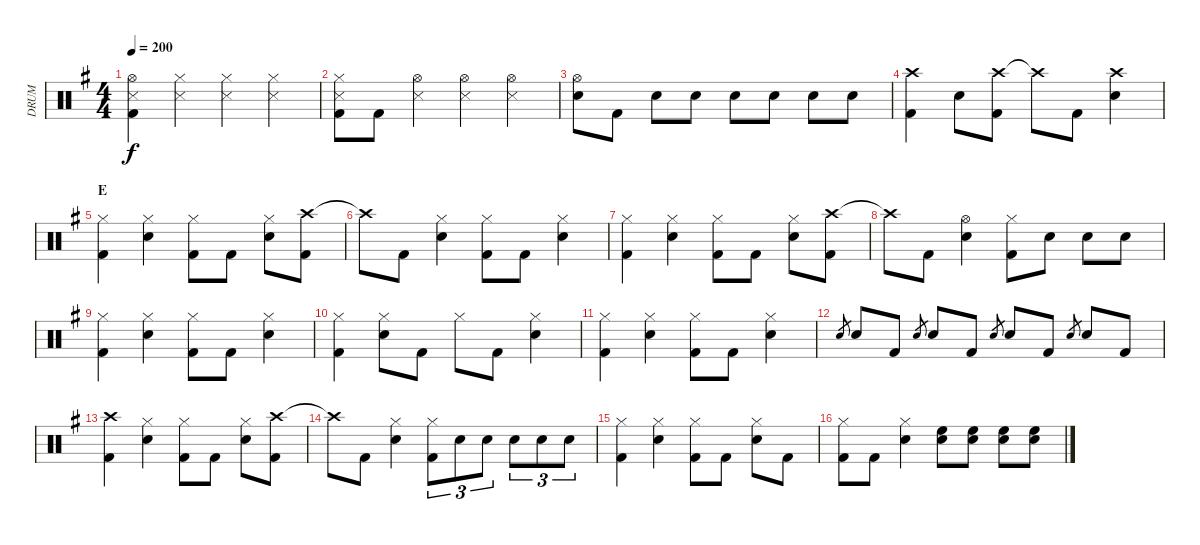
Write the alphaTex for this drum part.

\track ("DRUM" "DRUM") {instrument percussion}
\staff {score}
\articulation defaults
\ts (4 4)
\tempo 200
\clef neutral
\ks eminor
("Hi-Hat (open)" "Snare (side stick) 3" "Kick (hit) 2").4{dy f} ("Hi-Hat (closed)" "Snare (side stick) 3").4 ("Hi-Hat (closed)" "Snare (side stick) 3").4 ("Hi-Hat (closed)" "Snare (side stick) 3").4 |
("Hi-Hat (closed)" "Snare (side stick) 3" "Kick (hit) 2").8 "Kick (hit) 2".8 ("Hi-Hat (open)" "Snare (side stick) 3").4 ("Hi-Hat (open)" "Snare (side stick) 3").4 ("Hi-Hat (open)" "Snare (side stick) 3").4 |
("Hi-Hat (open)" "Snare (hit) 2").8 "Kick (hit) 2".8 "Snare (hit) 2".8 "Snare (hit) 2".8 "Snare (hit) 2".8 "Snare (hit) 2".8 "Snare (hit) 2".8 "Snare (hit) 2".8 |
("Crash high (hit)" "Kick (hit) 2").4 "Snare (hit) 2".8 ("Crash high (hit)" "Kick (hit) 2").8 "Crash high (hit)"{t}.8 "Kick (hit) 2".8 ("Crash high (hit)" "Snare (hit) 2").4 |
\section ("" "E")
("Hi-Hat (closed)" "Kick (hit) 2").4 ("Hi-Hat (closed)" "Snare (hit) 2").4 ("Hi-Hat (closed)" "Kick (hit) 2").8 "Kick (hit) 2".8 ("Hi-Hat (closed)" "Snare (hit) 2").8 ("Crash high (hit)" "Kick (hit) 2").8 |
"Crash high (hit)"{t}.8 "Kick (hit) 2".8 ("Hi-Hat (closed)" "Snare (hit) 2").4 ("Hi-Hat (closed)" "Kick (hit) 2").8 "Kick (hit) 2".8 ("Hi-Hat (closed)" "Snare (hit) 2").4 |
("Hi-Hat (closed)" "Kick (hit) 2").4 ("Hi-Hat (closed)" "Snare (hit) 2").4 ("Hi-Hat (closed)" "Kick (hit) 2").8 "Kick (hit) 2".8 ("Hi-Hat (closed)" "Snare (hit) 2").8 ("Crash high (hit)" "Kick (hit) 2").8 |
"Crash high (hit)"{t}.8 "Kick (hit) 2".8 ("Hi-Hat (open)" "Snare (hit) 2").4 ("Hi-Hat (closed)" "Kick (hit) 2").8 "Snare (hit) 2".8 "Snare (hit) 2".8 "Snare (hit) 2".8 |
("Hi-Hat (closed)" "Kick (hit) 2").4 ("Hi-Hat (closed)" "Snare (hit) 2").4 ("Hi-Hat (closed)" "Kick (hit) 2").8 "Kick (hit) 2".8 ("Hi-Hat (closed)" "Snare (hit) 2").4 |
("Hi-Hat (closed)" "Kick (hit) 2").4 ("Hi-Hat (closed)" "Snare (hit) 2").8 "Kick (hit) 2".8 "Hi-Hat (closed)".8 "Kick (hit) 2".8 ("Hi-Hat (closed)" "Snare (hit) 2").4 |
("Hi-Hat (closed)" "Kick (hit) 2").4 ("Hi-Hat (closed)" "Snare (hit) 2").4 ("Hi-Hat (closed)" "Kick (hit) 2").8 "Kick (hit) 2".8 ("Hi-Hat (closed)" "Snare (hit) 2").4 |
"Snare (hit) 2".8{gr} "Snare (hit) 2".8 "Kick (hit) 2".8 "Snare (hit) 2".8{gr} "Snare (hit) 2".8 "Kick (hit) 2".8 "Snare (hit) 2".8{gr} "Snare (hit) 2".8 "Kick (hit) 2".8 "Snare (hit) 2".8{gr} "Snare (hit) 2".8 "Kick (hit) 2".8 |
("Crash high (hit)" "Kick (hit) 2").4 ("Hi-Hat (closed)" "Snare (hit) 2").4 ("Hi-Hat (closed)" "Kick (hit) 2").8 "Kick (hit) 2".8 ("Hi-Hat (closed)" "Snare (hit) 2").8 ("Crash high (hit)" "Kick (hit) 2").8 |
"Crash high (hit)"{t}.8 "Kick (hit) 2".8 ("Hi-Hat (closed)" "Snare (hit) 2").4 ("Hi-Hat (closed)" "Kick (hit) 2").8{tu (3 2)} "Snare (hit) 2".8{tu (3 2)} "Snare (hit) 2".8{tu (3 2)} "Snare (hit) 2".8{tu (3 2)} "Snare (hit) 2".8{tu (3 2)} "Snare (hit) 2".8{tu (3 2)} |
("Hi-Hat (closed)" "Kick (hit) 2").4 ("Hi-Hat (closed)" "Snare (hit) 2").4 ("Hi-Hat (closed)" "Kick (hit) 2").8 "Kick (hit) 2".8 ("Hi-Hat (closed)" "Snare (hit) 2").8 "Kick (hit) 2".8 |
("Hi-Hat (closed)" "Kick (hit) 2").8 "Kick (hit) 2".8 ("Hi-Hat (closed)" "Snare (hit) 2").4 ("High Floor Tom (hit)" "Snare (hit) 2").8 ("High Floor Tom (hit)" "Snare (hit) 2").8 ("High Floor Tom (hit)" "Snare (hit) 2").8 ("High Floor Tom (hit)" "Snare (hit) 2").8
